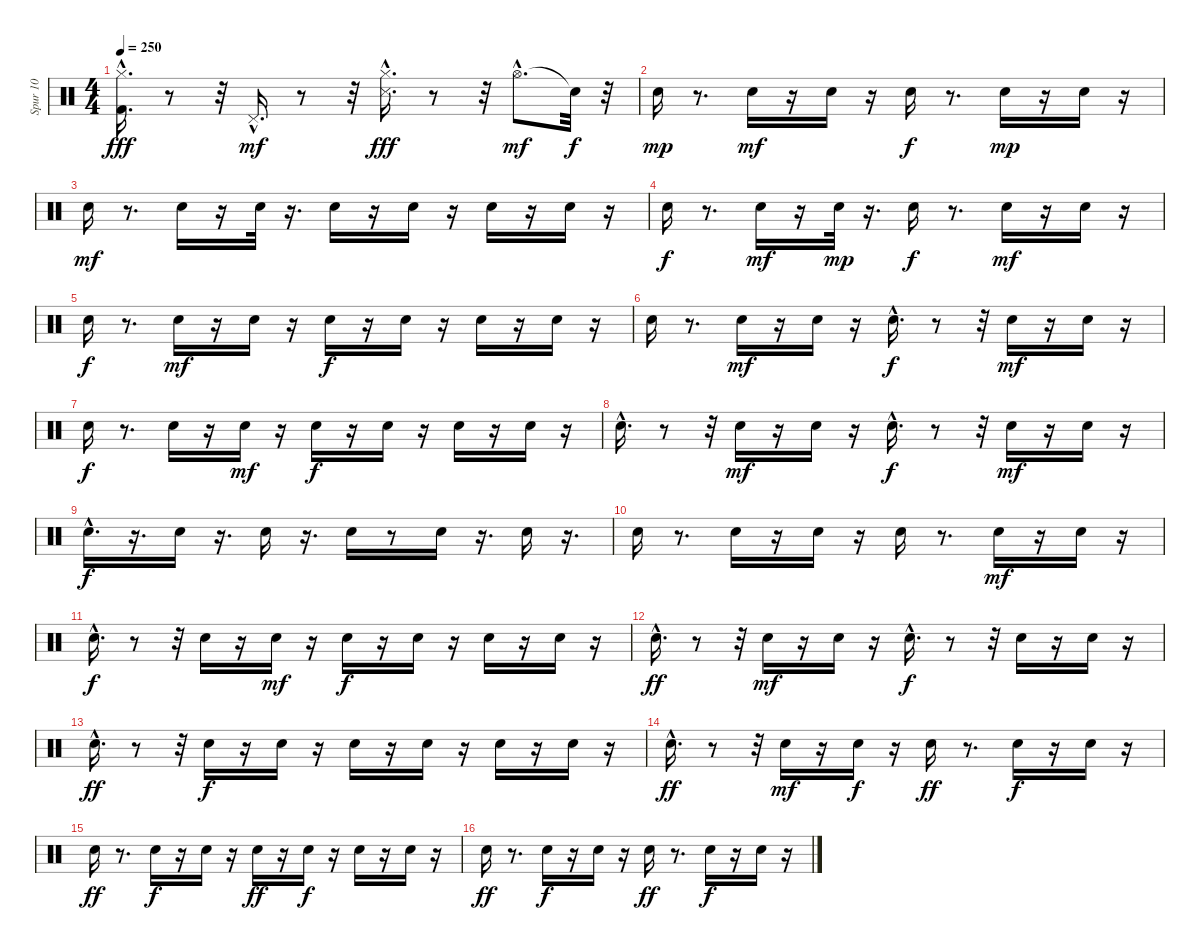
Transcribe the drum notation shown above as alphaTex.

\track ("Spur 10" "Spur 10") {instrument percussion}
\staff {score}
\articulation defaults
\ts (4 4)
\tempo 250
\clef neutral
\ks c
("Hi-Hat (closed)"{hac} "Kick (hit) 2"{hac}).16{d dy fff} r.8 r.32 "Pedal Hi-Hat (hit)"{hac}.16{d dy mf} r.8 r.32 ("Hi-Hat (closed)"{hac} "Snare (side stick) 3"{hac}).16{d dy fff} r.8 r.32 "Hi-Hat (open)"{hac}.8{d dy mf} "Snare (hit)"{t}.32{dy f} r.32 |
"Electric Snare (hit)".16{dy mp} r.8{d} "Electric Snare (hit)".16{dy mf} r.16 "Electric Snare (hit)".16 r.16 "Electric Snare (hit)".16{dy f} r.8{d} "Electric Snare (hit)".16{dy mp} r.16 "Electric Snare (hit)".16 r.16 |
"Electric Snare (hit)".16{dy mf} r.8{d} "Electric Snare (hit)".16 r.16 "Electric Snare (hit)".32 r.16{d} "Electric Snare (hit)".16 r.16 "Electric Snare (hit)".16 r.16 "Electric Snare (hit)".16 r.16 "Electric Snare (hit)".16 r.16 |
"Electric Snare (hit)".16{dy f} r.8{d} "Electric Snare (hit)".16{dy mf} r.16 "Electric Snare (hit)".32{dy mp} r.16{d} "Electric Snare (hit)".16{dy f} r.8{d} "Electric Snare (hit)".16{dy mf} r.16 "Electric Snare (hit)".16 r.16 |
"Electric Snare (hit)".16{dy f} r.8{d} "Electric Snare (hit)".16{dy mf} r.16 "Electric Snare (hit)".16 r.16 "Electric Snare (hit)".16{dy f} r.16 "Electric Snare (hit)".16 r.16 "Electric Snare (hit)".16 r.16 "Electric Snare (hit)".16 r.16 |
"Electric Snare (hit)".16 r.8{d} "Electric Snare (hit)".16{dy mf} r.16 "Electric Snare (hit)".16 r.16 "Electric Snare (hit)"{hac}.16{d dy f} r.8 r.32 "Electric Snare (hit)".16{dy mf} r.16 "Electric Snare (hit)".16 r.16 |
"Electric Snare (hit)".16{dy f} r.8{d} "Electric Snare (hit)".16 r.16 "Electric Snare (hit)".16{dy mf} r.16 "Electric Snare (hit)".16{dy f} r.16 "Electric Snare (hit)".16 r.16 "Electric Snare (hit)".16 r.16 "Electric Snare (hit)".16 r.16 |
"Electric Snare (hit)"{hac}.16{d} r.8 r.32 "Electric Snare (hit)".16{dy mf} r.16 "Electric Snare (hit)".16 r.16 "Electric Snare (hit)"{hac}.16{d dy f} r.8 r.32 "Electric Snare (hit)".16{dy mf} r.16 "Electric Snare (hit)".16 r.16 |
"Electric Snare (hit)"{hac}.16{d dy f} r.16{d} "Electric Snare (hit)".16 r.16{d} "Electric Snare (hit)".16 r.16{d} "Electric Snare (hit)".16 r.8 "Electric Snare (hit)".16 r.16{d} "Electric Snare (hit)".16 r.16{d} |
"Electric Snare (hit)".16 r.8{d} "Electric Snare (hit)".16 r.16 "Electric Snare (hit)".16 r.16 "Electric Snare (hit)".16 r.8{d} "Electric Snare (hit)".16{dy mf} r.16 "Electric Snare (hit)".16 r.16 |
"Electric Snare (hit)"{hac}.16{d dy f} r.8 r.32 "Electric Snare (hit)".16 r.16 "Electric Snare (hit)".16{dy mf} r.16 "Electric Snare (hit)".16{dy f} r.16 "Electric Snare (hit)".16 r.16 "Electric Snare (hit)".16 r.16 "Electric Snare (hit)".16 r.16 |
"Electric Snare (hit)"{hac}.16{d dy ff} r.8 r.32 "Electric Snare (hit)".16{dy mf} r.16 "Electric Snare (hit)".16 r.16 "Electric Snare (hit)"{hac}.16{d dy f} r.8 r.32 "Electric Snare (hit)".16 r.16 "Electric Snare (hit)".16 r.16 |
"Electric Snare (hit)"{hac}.16{d dy ff} r.8 r.32 "Electric Snare (hit)".16{dy f} r.16 "Electric Snare (hit)".16 r.16 "Electric Snare (hit)".16 r.16 "Electric Snare (hit)".16 r.16 "Electric Snare (hit)".16 r.16 "Electric Snare (hit)".16 r.16 |
"Electric Snare (hit)"{hac}.16{d dy ff} r.8 r.32 "Electric Snare (hit)".16{dy mf} r.16 "Electric Snare (hit)".16{dy f} r.16 "Electric Snare (hit)".16{dy ff} r.8{d} "Electric Snare (hit)".16{dy f} r.16 "Electric Snare (hit)".16 r.16 |
"Electric Snare (hit)".16{dy ff} r.8{d} "Electric Snare (hit)".16{dy f} r.16 "Electric Snare (hit)".16 r.16 "Electric Snare (hit)".16{dy ff} r.16 "Electric Snare (hit)".16{dy f} r.16 "Electric Snare (hit)".16 r.16 "Electric Snare (hit)".16 r.16 |
"Electric Snare (hit)".16{dy ff} r.8{d} "Electric Snare (hit)".16{dy f} r.16 "Electric Snare (hit)".16 r.16 "Electric Snare (hit)".16{dy ff} r.8{d} "Electric Snare (hit)".16{dy f} r.16 "Electric Snare (hit)".16 r.16
